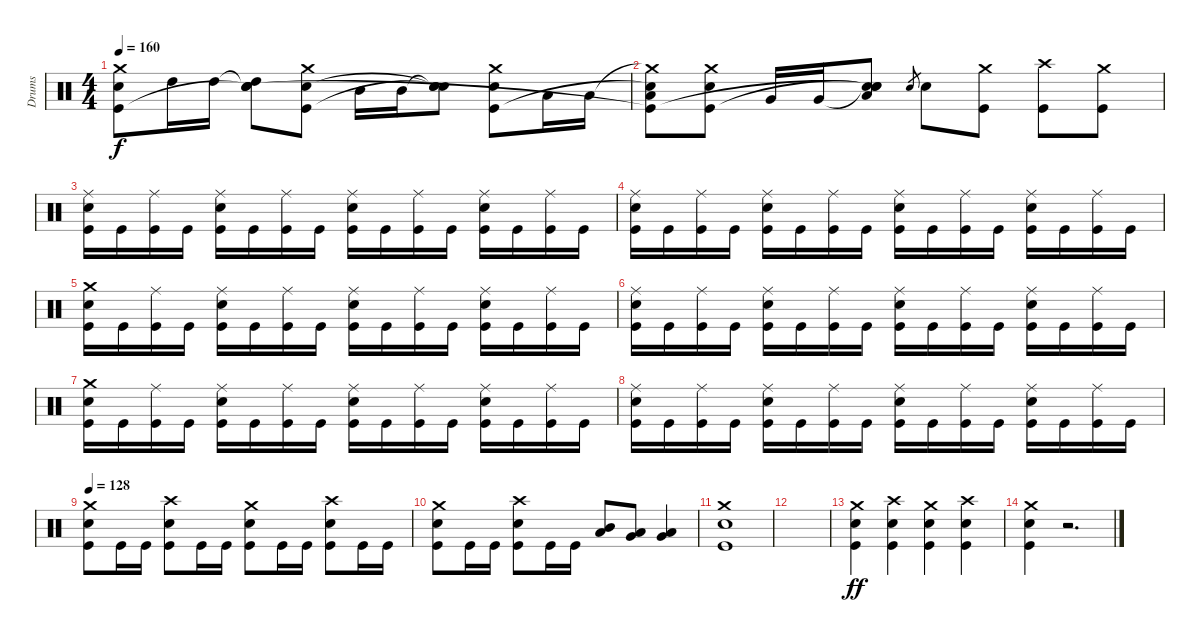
\track ("Drums" "Drums") {instrument percussion}
\staff {score}
\articulation defaults
\ts (4 4)
\tempo 160
\clef neutral
\ks c
("Crash medium (hit)" "Electric Snare (hit)" "Kick (hit)").8{dy f} "High Tom (hit)".16 "High Tom (hit)".16 ("Snare (hit)"{t} "High Tom (hit)" "Snare (hit)"{t} "Snare (hit)").8 ("Crash medium (hit)" "Electric Snare (hit)" "Kick (hit)").8 "Mid Tom (hit)".16 "Mid Tom (hit)".16 ("Snare (hit)"{t} "Snare (hit)"{t} "Snare (hit)"{t}).8 ("Crash medium (hit)" "Electric Snare (hit)" "Kick (hit)").8 "Low Tom (hit)".16 "Low Tom (hit)".16 |
("Crash medium (hit)"{t} "Low Tom (hit)" "Electric Snare (hit)"{t} "Kick (hit)"{t}).8 ("Crash medium (hit)" "Electric Snare (hit)" "Kick (hit)").8 "Very Low Tom (hit)".16 "Very Low Tom (hit)".16 ("Snare (hit)"{t} "Low Floor Tom (hit)" "Snare (hit)"{t} "Snare (hit)"{t}).8 "Electric Snare (hit)".8{gr} "Electric Snare (hit)".8 ("Crash medium (hit)" "Kick (hit)").8 ("Crash high (hit)" "Kick (hit)").8 ("Crash medium (hit)" "Kick (hit)").8 |
("Ride (middle)" "Electric Snare (hit)" "Kick (hit)").16 "Kick (hit)".16 ("Ride (middle)" "Kick (hit)").16 "Kick (hit)".16 ("Ride (middle)" "Electric Snare (hit)" "Kick (hit)").16 "Kick (hit)".16 ("Ride (middle)" "Kick (hit)").16 "Kick (hit)".16 ("Ride (middle)" "Electric Snare (hit)" "Kick (hit)").16 "Kick (hit)".16 ("Ride (middle)" "Kick (hit)").16 "Kick (hit)".16 ("Ride (middle)" "Electric Snare (hit)" "Kick (hit)").16 "Kick (hit)".16 ("Ride (middle)" "Kick (hit)").16 "Kick (hit)".16 |
("Ride (middle)" "Electric Snare (hit)" "Kick (hit)").16 "Kick (hit)".16 ("Ride (middle)" "Kick (hit)").16 "Kick (hit)".16 ("Ride (middle)" "Electric Snare (hit)" "Kick (hit)").16 "Kick (hit)".16 ("Ride (middle)" "Kick (hit)").16 "Kick (hit)".16 ("Ride (middle)" "Electric Snare (hit)" "Kick (hit)").16 "Kick (hit)".16 ("Ride (middle)" "Kick (hit)").16 "Kick (hit)".16 ("Ride (middle)" "Electric Snare (hit)" "Kick (hit)").16 "Kick (hit)".16 ("Ride (middle)" "Kick (hit)").16 "Kick (hit)".16 |
("Crash medium (hit)" "Electric Snare (hit)" "Kick (hit)").16 "Kick (hit)".16 ("Ride (middle)" "Kick (hit)").16 "Kick (hit)".16 ("Ride (middle)" "Electric Snare (hit)" "Kick (hit)").16 "Kick (hit)".16 ("Ride (middle)" "Kick (hit)").16 "Kick (hit)".16 ("Ride (middle)" "Electric Snare (hit)" "Kick (hit)").16 "Kick (hit)".16 ("Ride (middle)" "Kick (hit)").16 "Kick (hit)".16 ("Ride (middle)" "Electric Snare (hit)" "Kick (hit)").16 "Kick (hit)".16 ("Ride (middle)" "Kick (hit)").16 "Kick (hit)".16 |
("Ride (middle)" "Electric Snare (hit)" "Kick (hit)").16 "Kick (hit)".16 ("Ride (middle)" "Kick (hit)").16 "Kick (hit)".16 ("Ride (middle)" "Electric Snare (hit)" "Kick (hit)").16 "Kick (hit)".16 ("Ride (middle)" "Kick (hit)").16 "Kick (hit)".16 ("Ride (middle)" "Electric Snare (hit)" "Kick (hit)").16 "Kick (hit)".16 ("Ride (middle)" "Kick (hit)").16 "Kick (hit)".16 ("Ride (middle)" "Electric Snare (hit)" "Kick (hit)").16 "Kick (hit)".16 ("Ride (middle)" "Kick (hit)").16 "Kick (hit)".16 |
("Crash medium (hit)" "Electric Snare (hit)" "Kick (hit)").16 "Kick (hit)".16 ("Ride (middle)" "Kick (hit)").16 "Kick (hit)".16 ("Ride (middle)" "Electric Snare (hit)" "Kick (hit)").16 "Kick (hit)".16 ("Ride (middle)" "Kick (hit)").16 "Kick (hit)".16 ("Ride (middle)" "Electric Snare (hit)" "Kick (hit)").16 "Kick (hit)".16 ("Ride (middle)" "Kick (hit)").16 "Kick (hit)".16 ("Ride (middle)" "Electric Snare (hit)" "Kick (hit)").16 "Kick (hit)".16 ("Ride (middle)" "Kick (hit)").16 "Kick (hit)".16 |
("Ride (middle)" "Electric Snare (hit)" "Kick (hit)").16 "Kick (hit)".16 ("Ride (middle)" "Kick (hit)").16 "Kick (hit)".16 ("Ride (middle)" "Electric Snare (hit)" "Kick (hit)").16 "Kick (hit)".16 ("Ride (middle)" "Kick (hit)").16 "Kick (hit)".16 ("Ride (middle)" "Electric Snare (hit)" "Kick (hit)").16 "Kick (hit)".16 ("Ride (middle)" "Kick (hit)").16 "Kick (hit)".16 ("Ride (middle)" "Electric Snare (hit)" "Kick (hit)").16 "Kick (hit)".16 ("Ride (middle)" "Kick (hit)").16 "Kick (hit)".16 |
\tempo 128
("Crash medium (hit)" "Electric Snare (hit)" "Kick (hit)").8 "Kick (hit)".16 "Kick (hit)".16 ("Crash high (hit)" "Electric Snare (hit)" "Kick (hit)").8 "Kick (hit)".16 "Kick (hit)".16 ("Crash medium (hit)" "Electric Snare (hit)" "Kick (hit)").8 "Kick (hit)".16 "Kick (hit)".16 ("Crash high (hit)" "Electric Snare (hit)" "Kick (hit)").8 "Kick (hit)".16 "Kick (hit)".16 |
("Crash medium (hit)" "Electric Snare (hit)" "Kick (hit)").8 "Kick (hit)".16 "Kick (hit)".16 ("Crash high (hit)" "Electric Snare (hit)" "Kick (hit)").8 "Kick (hit)".16 "Kick (hit)".16 ("Low Tom (hit)" "Mid Tom (hit)").8 ("Low Tom (hit)" "Very Low Tom (hit)").8 ("Very Low Tom (hit)" "Low Floor Tom (hit)").4 |
("Crash medium (hit)" "Electric Snare (hit)" "Kick (hit)").1 |
|
("Crash medium (hit)" "Electric Snare (hit)" "Kick (hit)").4{dy ff} ("Crash high (hit)" "Electric Snare (hit)" "Kick (hit)").4 ("Crash medium (hit)" "Electric Snare (hit)" "Kick (hit)").4 ("Crash high (hit)" "Electric Snare (hit)" "Kick (hit)").4 |
("Crash medium (hit)" "Electric Snare (hit)" "Kick (hit)").4 r.2{d}
